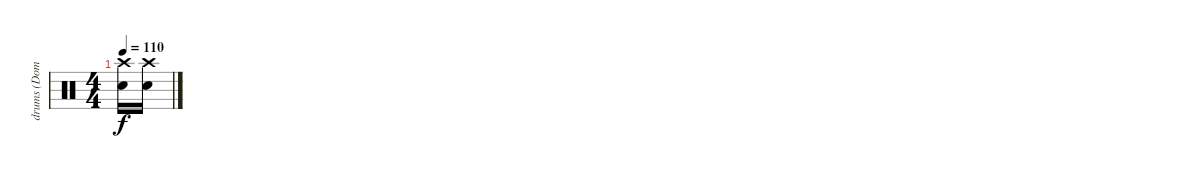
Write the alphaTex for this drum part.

\track ("drums (Dominic howard)" "drums (Dom") {instrument percussion}
\staff {score}
\articulation defaults
\ts (4 4)
\tempo 110
\clef neutral
\ks c
("Crash high (hit)" "Snare (hit) 2").16{dy f} ("Crash high (hit)" "Snare (hit) 2").16
